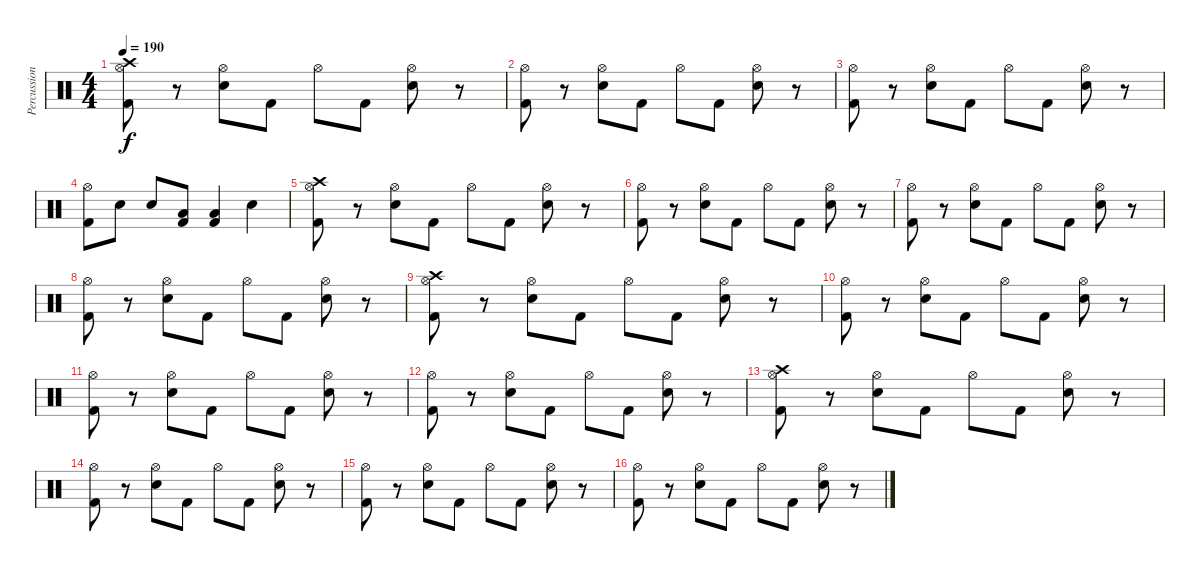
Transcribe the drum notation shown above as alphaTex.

\track ("Percussioni" "Percussion") {instrument percussion}
\staff {score}
\articulation defaults
\ts (4 4)
\tempo 190
\clef neutral
\ks c
("Hi-Hat (open)" "Crash high (hit)" "Kick (hit) 2").8{dy f} r.8 ("Hi-Hat (open)" "Snare (hit) 2").8 "Kick (hit) 2".8 "Hi-Hat (open)".8 "Kick (hit) 2".8 ("Hi-Hat (open)" "Snare (hit) 2").8 r.8 |
("Hi-Hat (open)" "Kick (hit) 2").8 r.8 ("Hi-Hat (open)" "Snare (hit) 2").8 "Kick (hit) 2".8 "Hi-Hat (open)".8 "Kick (hit) 2".8 ("Hi-Hat (open)" "Snare (hit) 2").8 r.8 |
("Hi-Hat (open)" "Kick (hit) 2").8 r.8 ("Hi-Hat (open)" "Snare (hit) 2").8 "Kick (hit) 2".8 "Hi-Hat (open)".8 "Kick (hit) 2".8 ("Hi-Hat (open)" "Snare (hit) 2").8 r.8 |
("Kick (hit) 2" "Hi-Hat (open)").8 "Snare (hit) 2".8 "Snare (hit) 2".8 ("Low Tom (hit)" "Kick (hit) 2").8 ("Kick (hit) 2" "Low Tom (hit)").4 "Snare (hit) 2".4 |
("Hi-Hat (open)" "Crash high (hit)" "Kick (hit) 2").8 r.8 ("Hi-Hat (open)" "Snare (hit) 2").8 "Kick (hit) 2".8 "Hi-Hat (open)".8 "Kick (hit) 2".8 ("Hi-Hat (open)" "Snare (hit) 2").8 r.8 |
("Hi-Hat (open)" "Kick (hit) 2").8 r.8 ("Hi-Hat (open)" "Snare (hit) 2").8 "Kick (hit) 2".8 "Hi-Hat (open)".8 "Kick (hit) 2".8 ("Hi-Hat (open)" "Snare (hit) 2").8 r.8 |
("Hi-Hat (open)" "Kick (hit) 2").8 r.8 ("Hi-Hat (open)" "Snare (hit) 2").8 "Kick (hit) 2".8 "Hi-Hat (open)".8 "Kick (hit) 2".8 ("Hi-Hat (open)" "Snare (hit) 2").8 r.8 |
("Hi-Hat (open)" "Kick (hit) 2").8 r.8 ("Hi-Hat (open)" "Snare (hit) 2").8 "Kick (hit) 2".8 "Hi-Hat (open)".8 "Kick (hit) 2".8 ("Hi-Hat (open)" "Snare (hit) 2").8 r.8 |
("Hi-Hat (open)" "Crash high (hit)" "Kick (hit) 2").8 r.8 ("Hi-Hat (open)" "Snare (hit) 2").8 "Kick (hit) 2".8 "Hi-Hat (open)".8 "Kick (hit) 2".8 ("Hi-Hat (open)" "Snare (hit) 2").8 r.8 |
("Hi-Hat (open)" "Kick (hit) 2").8 r.8 ("Hi-Hat (open)" "Snare (hit) 2").8 "Kick (hit) 2".8 "Hi-Hat (open)".8 "Kick (hit) 2".8 ("Hi-Hat (open)" "Snare (hit) 2").8 r.8 |
("Hi-Hat (open)" "Kick (hit) 2").8 r.8 ("Hi-Hat (open)" "Snare (hit) 2").8 "Kick (hit) 2".8 "Hi-Hat (open)".8 "Kick (hit) 2".8 ("Hi-Hat (open)" "Snare (hit) 2").8 r.8 |
("Hi-Hat (open)" "Kick (hit) 2").8 r.8 ("Hi-Hat (open)" "Snare (hit) 2").8 "Kick (hit) 2".8 "Hi-Hat (open)".8 "Kick (hit) 2".8 ("Hi-Hat (open)" "Snare (hit) 2").8 r.8 |
("Hi-Hat (open)" "Crash high (hit)" "Kick (hit) 2").8 r.8 ("Hi-Hat (open)" "Snare (hit) 2").8 "Kick (hit) 2".8 "Hi-Hat (open)".8 "Kick (hit) 2".8 ("Hi-Hat (open)" "Snare (hit) 2").8 r.8 |
("Hi-Hat (open)" "Kick (hit) 2").8 r.8 ("Hi-Hat (open)" "Snare (hit) 2").8 "Kick (hit) 2".8 "Hi-Hat (open)".8 "Kick (hit) 2".8 ("Hi-Hat (open)" "Snare (hit) 2").8 r.8 |
("Hi-Hat (open)" "Kick (hit) 2").8 r.8 ("Hi-Hat (open)" "Snare (hit) 2").8 "Kick (hit) 2".8 "Hi-Hat (open)".8 "Kick (hit) 2".8 ("Hi-Hat (open)" "Snare (hit) 2").8 r.8 |
("Hi-Hat (open)" "Kick (hit) 2").8 r.8 ("Hi-Hat (open)" "Snare (hit) 2").8 "Kick (hit) 2".8 "Hi-Hat (open)".8 "Kick (hit) 2".8 ("Hi-Hat (open)" "Snare (hit) 2").8 r.8
